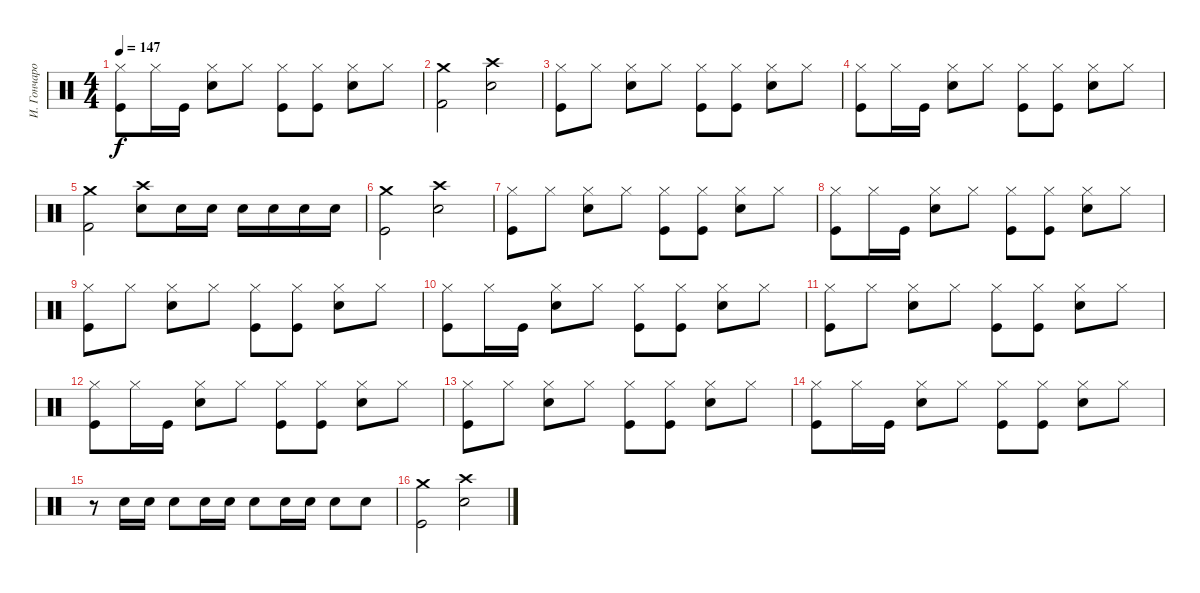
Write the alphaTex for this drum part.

\track ("И. Гончаров" "И. Гончаро") {instrument percussion}
\staff {score}
\articulation defaults
\ts (4 4)
\tempo 147
\clef neutral
\ks c
("Hi-Hat (closed)" "Kick (hit)").8{dy f} "Hi-Hat (closed)".16 "Kick (hit)".16 ("Hi-Hat (closed)" "Snare (hit) 2").8 "Hi-Hat (closed)".8 ("Hi-Hat (closed)" "Kick (hit)").8 ("Hi-Hat (closed)" "Kick (hit)").8 ("Hi-Hat (closed)" "Snare (hit) 2").8 "Hi-Hat (closed)".8 |
("Crash medium (hit)" "Kick (hit) 2").2 ("Crash high (hit)" "Snare (hit) 2").2 |
("Hi-Hat (closed)" "Kick (hit)").8 "Hi-Hat (closed)".8 ("Hi-Hat (closed)" "Snare (hit) 2").8 "Hi-Hat (closed)".8 ("Hi-Hat (closed)" "Kick (hit)").8 ("Hi-Hat (closed)" "Kick (hit)").8 ("Hi-Hat (closed)" "Snare (hit) 2").8 "Hi-Hat (closed)".8 |
("Hi-Hat (closed)" "Kick (hit)").8 "Hi-Hat (closed)".16 "Kick (hit)".16 ("Hi-Hat (closed)" "Snare (hit) 2").8 "Hi-Hat (closed)".8 ("Hi-Hat (closed)" "Kick (hit)").8 ("Hi-Hat (closed)" "Kick (hit)").8 ("Hi-Hat (closed)" "Snare (hit) 2").8 "Hi-Hat (closed)".8 |
("Crash medium (hit)" "Kick (hit) 2").2 ("Crash high (hit)" "Snare (hit) 2").8 "Snare (hit) 2".16 "Snare (hit) 2".16 "Snare (hit) 2".16 "Snare (hit) 2".16 "Snare (hit) 2".16 "Snare (hit) 2".16 |
("Crash medium (hit)" "Kick (hit)").2 ("Crash high (hit)" "Snare (hit) 2").2 |
("Hi-Hat (closed)" "Kick (hit)").8 "Hi-Hat (closed)".8 ("Hi-Hat (closed)" "Snare (hit) 2").8 "Hi-Hat (closed)".8 ("Hi-Hat (closed)" "Kick (hit)").8 ("Hi-Hat (closed)" "Kick (hit)").8 ("Hi-Hat (closed)" "Snare (hit) 2").8 "Hi-Hat (closed)".8 |
("Hi-Hat (closed)" "Kick (hit)").8 "Hi-Hat (closed)".16 "Kick (hit)".16 ("Hi-Hat (closed)" "Snare (hit) 2").8 "Hi-Hat (closed)".8 ("Hi-Hat (closed)" "Kick (hit)").8 ("Hi-Hat (closed)" "Kick (hit)").8 ("Hi-Hat (closed)" "Snare (hit) 2").8 "Hi-Hat (closed)".8 |
("Hi-Hat (closed)" "Kick (hit)").8 "Hi-Hat (closed)".8 ("Hi-Hat (closed)" "Snare (hit) 2").8 "Hi-Hat (closed)".8 ("Hi-Hat (closed)" "Kick (hit)").8 ("Hi-Hat (closed)" "Kick (hit)").8 ("Hi-Hat (closed)" "Snare (hit) 2").8 "Hi-Hat (closed)".8 |
("Hi-Hat (closed)" "Kick (hit)").8 "Hi-Hat (closed)".16 "Kick (hit)".16 ("Hi-Hat (closed)" "Snare (hit) 2").8 "Hi-Hat (closed)".8 ("Hi-Hat (closed)" "Kick (hit)").8 ("Hi-Hat (closed)" "Kick (hit)").8 ("Hi-Hat (closed)" "Snare (hit) 2").8 "Hi-Hat (closed)".8 |
("Hi-Hat (closed)" "Kick (hit)").8 "Hi-Hat (closed)".8 ("Hi-Hat (closed)" "Snare (hit) 2").8 "Hi-Hat (closed)".8 ("Hi-Hat (closed)" "Kick (hit)").8 ("Hi-Hat (closed)" "Kick (hit)").8 ("Hi-Hat (closed)" "Snare (hit) 2").8 "Hi-Hat (closed)".8 |
("Hi-Hat (closed)" "Kick (hit)").8 "Hi-Hat (closed)".16 "Kick (hit)".16 ("Hi-Hat (closed)" "Snare (hit) 2").8 "Hi-Hat (closed)".8 ("Hi-Hat (closed)" "Kick (hit)").8 ("Hi-Hat (closed)" "Kick (hit)").8 ("Hi-Hat (closed)" "Snare (hit) 2").8 "Hi-Hat (closed)".8 |
("Hi-Hat (closed)" "Kick (hit)").8 "Hi-Hat (closed)".8 ("Hi-Hat (closed)" "Snare (hit) 2").8 "Hi-Hat (closed)".8 ("Hi-Hat (closed)" "Kick (hit)").8 ("Hi-Hat (closed)" "Kick (hit)").8 ("Hi-Hat (closed)" "Snare (hit) 2").8 "Hi-Hat (closed)".8 |
("Hi-Hat (closed)" "Kick (hit)").8 "Hi-Hat (closed)".16 "Kick (hit)".16 ("Hi-Hat (closed)" "Snare (hit) 2").8 "Hi-Hat (closed)".8 ("Hi-Hat (closed)" "Kick (hit)").8 ("Hi-Hat (closed)" "Kick (hit)").8 ("Hi-Hat (closed)" "Snare (hit) 2").8 "Hi-Hat (closed)".8 |
r.8 "Snare (hit) 2".16 "Snare (hit) 2".16 "Snare (hit) 2".8 "Snare (hit) 2".16 "Snare (hit) 2".16 "Snare (hit) 2".8 "Snare (hit) 2".16 "Snare (hit) 2".16 "Snare (hit) 2".8 "Snare (hit) 2".8 |
("Crash medium (hit)" "Kick (hit)").2 ("Crash high (hit)" "Snare (hit) 2").2
